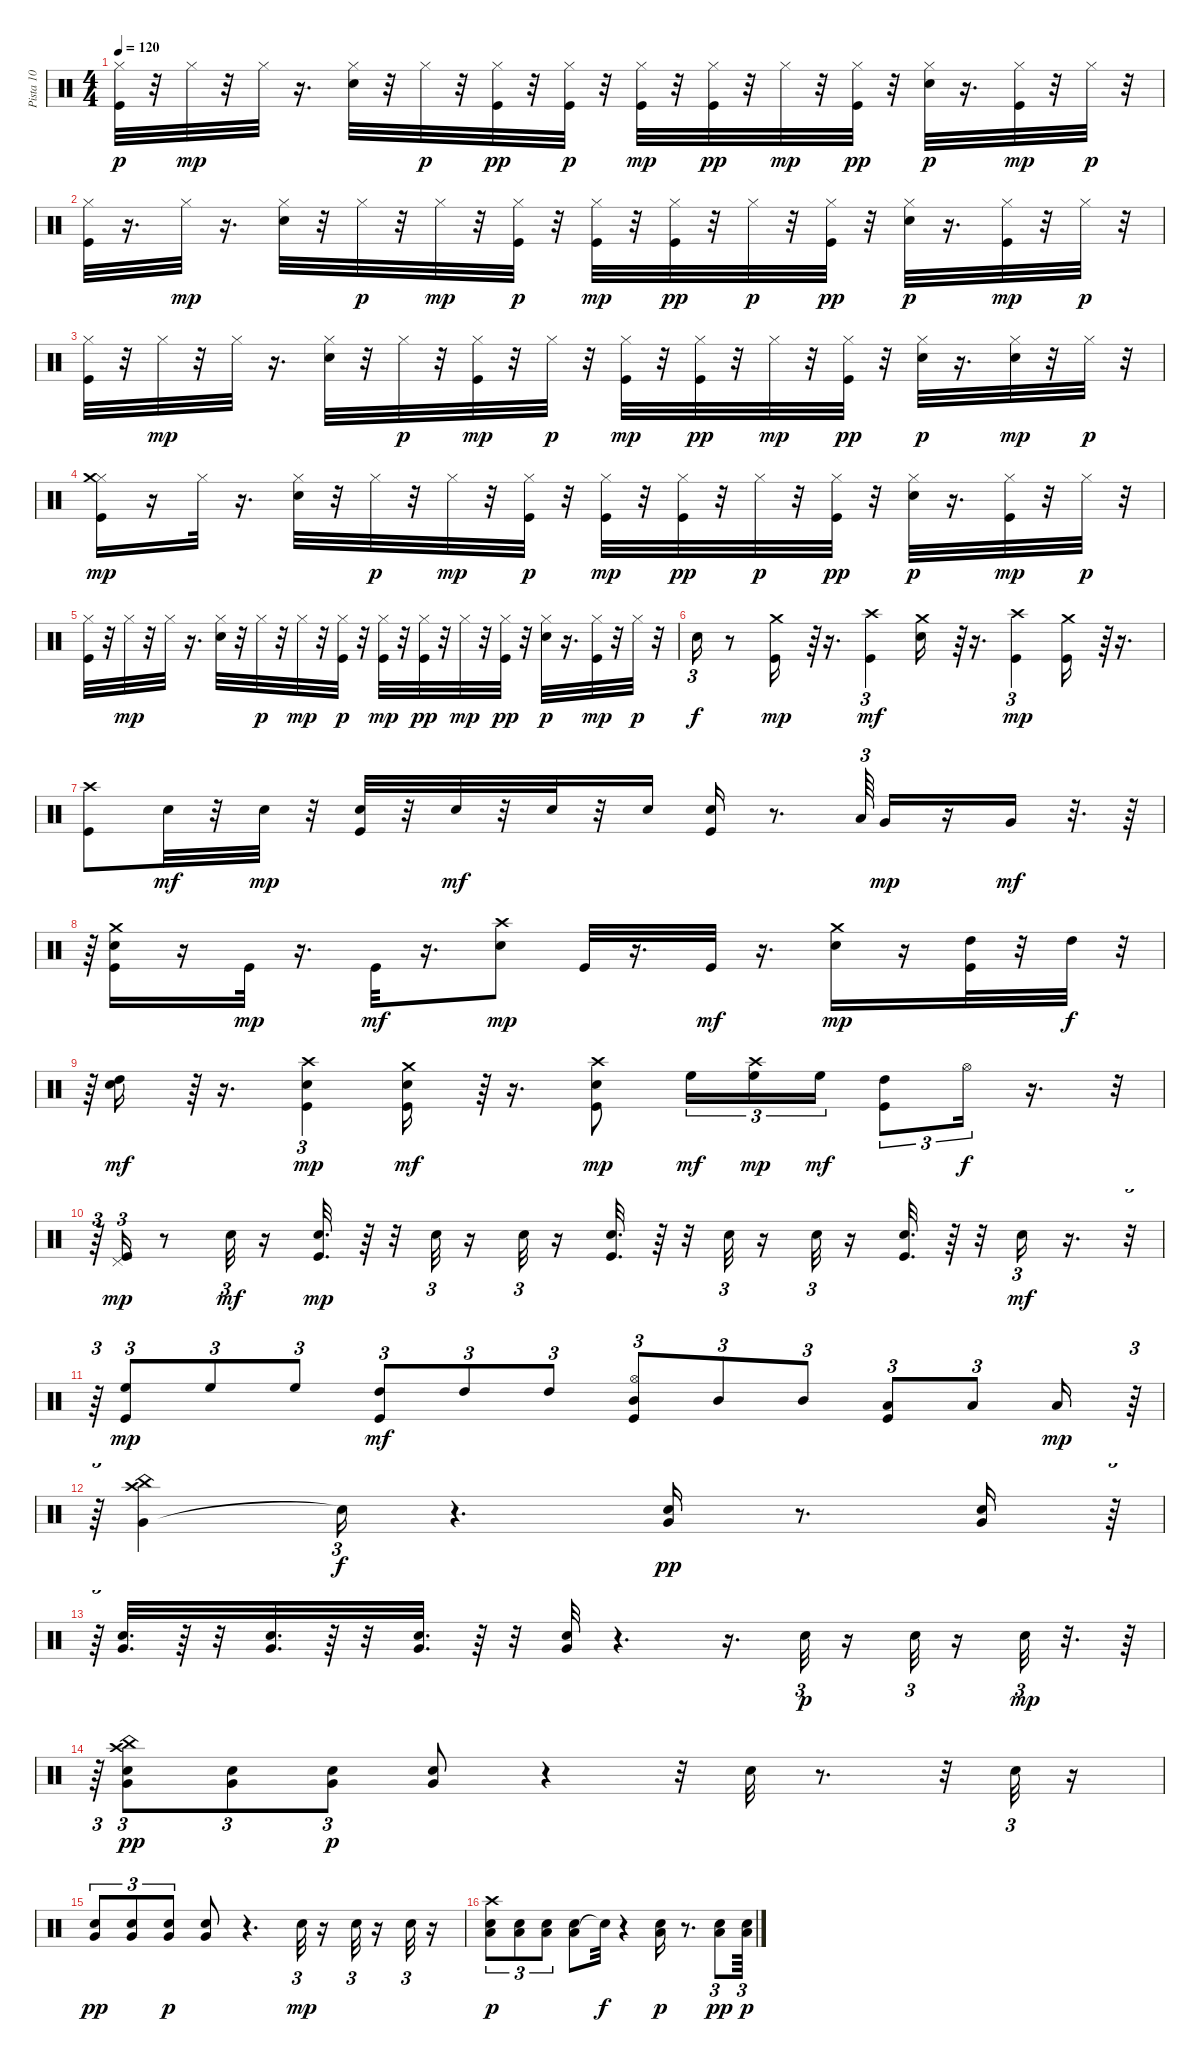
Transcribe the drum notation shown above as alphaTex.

\track ("Pista 10" "Pista 10") {instrument percussion}
\staff {score}
\articulation defaults
\ts (4 4)
\tempo 120
\clef neutral
\ks c
("Kick (hit)" "Hi-Hat (closed)").32{dy p} r.32 "Hi-Hat (closed)".32{dy mp} r.32 "Hi-Hat (closed)".32 r.16{d} ("Hi-Hat (closed)" "Snare (hit) 2").32 r.32 "Hi-Hat (closed)".32{dy p} r.32 ("Hi-Hat (closed)" "Kick (hit)").32{dy pp} r.32 ("Kick (hit)" "Hi-Hat (closed)").32{dy p} r.32 ("Kick (hit)" "Hi-Hat (closed)").32{dy mp} r.32 ("Hi-Hat (closed)" "Kick (hit)").32{dy pp} r.32 "Hi-Hat (closed)".32{dy mp} r.32 ("Hi-Hat (closed)" "Kick (hit)").32{dy pp} r.32 ("Snare (hit) 2" "Hi-Hat (closed)").32{dy p} r.16{d} ("Kick (hit)" "Hi-Hat (closed)").32{dy mp} r.32 "Hi-Hat (closed)".32{dy p} r.32 |
("Kick (hit)" "Hi-Hat (closed)").32 r.16{d} "Hi-Hat (closed)".32{dy mp} r.16{d} ("Hi-Hat (closed)" "Snare (hit) 2").32 r.32 "Hi-Hat (closed)".32{dy p} r.32 "Hi-Hat (closed)".32{dy mp} r.32 ("Kick (hit)" "Hi-Hat (closed)").32{dy p} r.32 ("Kick (hit)" "Hi-Hat (closed)").32{dy mp} r.32 ("Hi-Hat (closed)" "Kick (hit)").32{dy pp} r.32 "Hi-Hat (closed)".32{dy p} r.32 ("Hi-Hat (closed)" "Kick (hit)").32{dy pp} r.32 ("Hi-Hat (closed)" "Snare (hit) 2").32{dy p} r.16{d} ("Hi-Hat (closed)" "Kick (hit)").32{dy mp} r.32 "Hi-Hat (closed)".32{dy p} r.32 |
("Kick (hit)" "Hi-Hat (closed)").32 r.32 "Hi-Hat (closed)".32{dy mp} r.32 "Hi-Hat (closed)".32 r.16{d} ("Hi-Hat (closed)" "Snare (hit) 2").32 r.32 "Hi-Hat (closed)".32{dy p} r.32 ("Kick (hit)" "Hi-Hat (closed)").32{dy mp} r.32 "Hi-Hat (closed)".32{dy p} r.32 ("Kick (hit)" "Hi-Hat (closed)").32{dy mp} r.32 ("Kick (hit)" "Hi-Hat (closed)").32{dy pp} r.32 "Hi-Hat (closed)".32{dy mp} r.32 ("Kick (hit)" "Hi-Hat (closed)").32{dy pp} r.32 ("Hi-Hat (closed)" "Snare (hit) 2").32{dy p} r.16{d} ("Hi-Hat (closed)" "Snare (hit) 2").32{dy mp} r.32 "Hi-Hat (closed)".32{dy p} r.32 |
("Kick (hit)" "Hi-Hat (closed)" "Crash medium (hit)").16{dy mp} r.16 "Hi-Hat (closed)".32 r.16{d} ("Hi-Hat (closed)" "Snare (hit) 2").32 r.32 "Hi-Hat (closed)".32{dy p} r.32 "Hi-Hat (closed)".32{dy mp} r.32 ("Kick (hit)" "Hi-Hat (closed)").32{dy p} r.32 ("Kick (hit)" "Hi-Hat (closed)").32{dy mp} r.32 ("Hi-Hat (closed)" "Kick (hit)").32{dy pp} r.32 "Hi-Hat (closed)".32{dy p} r.32 ("Hi-Hat (closed)" "Kick (hit)").32{dy pp} r.32 ("Hi-Hat (closed)" "Snare (hit) 2").32{dy p} r.16{d} ("Hi-Hat (closed)" "Kick (hit)").32{dy mp} r.32 "Hi-Hat (closed)".32{dy p} r.32 |
("Kick (hit)" "Hi-Hat (closed)").32 r.32 "Hi-Hat (closed)".32{dy mp} r.32 "Hi-Hat (closed)".32 r.16{d} ("Hi-Hat (closed)" "Snare (hit) 2").32 r.32 "Hi-Hat (closed)".32{dy p} r.32 "Hi-Hat (closed)".32{dy mp} r.32 ("Kick (hit)" "Hi-Hat (closed)").32{dy p} r.32 ("Kick (hit)" "Hi-Hat (closed)").32{dy mp} r.32 ("Kick (hit)" "Hi-Hat (closed)").32{dy pp} r.32 "Hi-Hat (closed)".32{dy mp} r.32 ("Kick (hit)" "Hi-Hat (closed)").32{dy pp} r.32 ("Hi-Hat (closed)" "Snare (hit) 2").32{dy p} r.16{d} ("Hi-Hat (closed)" "Kick (hit)").32{dy mp} r.32 "Hi-Hat (closed)".32{dy p} r.32 |
"Snare (hit) 2".16{tu (3 2) dy f} r.8 ("Kick (hit)" "Crash medium (hit)").16{dy mp} r.64{tu (3 2)} r.16{d} ("Kick (hit)" "Crash high (hit)").4{tu (3 2) dy mf} ("Crash medium (hit)" "Snare (hit) 2").16 r.64{tu (3 2)} r.16{d} ("Kick (hit)" "Crash high (hit)").4{tu (3 2) dy mp} ("Kick (hit)" "Crash medium (hit)").16 r.64{tu (3 2)} r.16{d} |
("Kick (hit)" "Crash high (hit)").8 "Snare (hit) 2".32{dy mf} r.32 "Snare (hit) 2".32{dy mp} r.32 ("Kick (hit)" "Snare (hit) 2").32 r.32 "Snare (hit) 2".32{dy mf} r.32 "Snare (hit) 2".32 r.32 "Snare (hit) 2".16 ("Kick (hit)" "Snare (hit) 2").16 r.8{d} "Low Floor Tom (hit)".64{tu (3 2)} "Very Low Tom (hit)".16{dy mp} r.16 "Very Low Tom (hit)".16{dy mf} r.32{d} r.64 |
r.64{tu (3 2)} ("Kick (hit)" "Crash medium (hit)" "Snare (hit) 2").16 r.16 "Kick (hit)".32{dy mp} r.16{d} "Kick (hit)".32{dy mf} r.16{d} ("Crash high (hit)" "Snare (hit) 2").8{dy mp} "Kick (hit)".32 r.16{d} "Kick (hit)".32{dy mf} r.16{d} ("Crash medium (hit)" "Snare (hit) 2").16{dy mp} r.16 ("High Tom (hit)" "Kick (hit)").32 r.32 "High Tom (hit)".32{dy f} r.32{tu (3 2)} |
r.64{tu (3 2)} ("High Tom (hit)" "Snare (hit) 2").16{dy mf} r.64{tu (3 2)} r.16{d} ("Kick (hit)" "Crash high (hit)" "Snare (hit) 2").4{tu (3 2) dy mp} ("Kick (hit)" "Crash medium (hit)" "Snare (hit) 2").16{dy mf} r.64{tu (3 2)} r.16{d} ("Kick (hit)" "Crash high (hit)" "Snare (hit) 2").8{dy mp} "High Floor Tom (hit)".16{tu (3 2) dy mf} ("Crash high (hit)" "High Floor Tom (hit)").16{tu (3 2) dy mp} "High Floor Tom (hit)".16{tu (3 2) dy mf} ("Kick (hit)" "High Tom (hit)").8{tu (3 2)} "Hi-Hat (open)".16{tu (3 2) dy f} r.16{d} r.32{tu (3 2)} |
r.64{tu (3 2)} ("Pedal Hi-Hat (hit)" "Kick (hit)").16{tu (3 2) dy mp} r.8 "Snare (hit) 2".32{tu (3 2) dy mf} r.16 ("Snare (hit) 2" "Kick (hit)").32{d dy mp} r.64 r.32 "Snare (hit) 2".32{tu (3 2)} r.16 "Snare (hit) 2".32{tu (3 2)} r.16 ("Snare (hit) 2" "Kick (hit)").32{d} r.64 r.32 "Snare (hit) 2".32{tu (3 2)} r.16 "Snare (hit) 2".32{tu (3 2)} r.16 ("Snare (hit) 2" "Kick (hit)").32{d} r.64 r.32 "Snare (hit) 2".16{tu (3 2) dy mf} r.16{d} r.32{tu (3 2)} |
r.64{tu (3 2)} ("Kick (hit)" "High Floor Tom (hit)").8{tu (3 2) dy mp} "High Floor Tom (hit)".8{tu (3 2)} "High Floor Tom (hit)".8{tu (3 2)} ("Kick (hit)" "High Tom (hit)").8{tu (3 2) dy mf} "High Tom (hit)".8{tu (3 2)} "High Tom (hit)".8{tu (3 2)} ("Kick (hit)" "Hi-Hat (open)" "Mid Tom (hit)").8{tu (3 2)} "Mid Tom (hit)".8{tu (3 2)} "Mid Tom (hit)".8{tu (3 2)} ("Kick (hit)" "Low Tom (hit)").8{tu (3 2)} "Low Tom (hit)".8{tu (3 2)} "Low Tom (hit)".16{dy mp} r.64{tu (3 2)} |
r.64{tu (3 2)} ("Very Low Tom (hit)" "China (hit)" "Crash high (hit)").4 "Snare (hit)"{t}.16{tu (3 2) dy f} r.4{d} ("Snare (hit) 2" "Very Low Tom (hit)").16{dy pp} r.8{d} ("Snare (hit) 2" "Very Low Tom (hit)").16 r.64{tu (3 2)} |
r.64{tu (3 2)} ("Snare (hit) 2" "Very Low Tom (hit)").32{d} r.64 r.32 ("Snare (hit) 2" "Very Low Tom (hit)").32{d} r.64 r.32 ("Snare (hit) 2" "Very Low Tom (hit)").32{d} r.64 r.32 ("Snare (hit) 2" "Very Low Tom (hit)").32 r.4{d} r.16{d} "Snare (hit) 2".32{tu (3 2) dy p} r.16 "Snare (hit) 2".32{tu (3 2)} r.16 "Snare (hit) 2".32{tu (3 2) dy mp} r.32{d} r.64 |
r.64{tu (3 2)} ("Snare (hit) 2" "China (hit)" "Crash high (hit)" "Very Low Tom (hit)").8{tu (3 2) dy pp} ("Snare (hit) 2" "Very Low Tom (hit)").8{tu (3 2)} ("Snare (hit) 2" "Very Low Tom (hit)").8{tu (3 2) dy p} ("Snare (hit) 2" "Very Low Tom (hit)").8 r.4 r.32 "Snare (hit) 2".32 r.8{d} r.32 "Snare (hit) 2".32{tu (3 2)} r.16 |
("Snare (hit) 2" "Very Low Tom (hit)").8{tu (3 2) dy pp} ("Snare (hit) 2" "Very Low Tom (hit)").8{tu (3 2)} ("Snare (hit) 2" "Very Low Tom (hit)").8{tu (3 2) dy p} ("Snare (hit) 2" "Very Low Tom (hit)").8 r.4{d} "Snare (hit) 2".32{tu (3 2) dy mp} r.16 "Snare (hit) 2".32{tu (3 2)} r.16 "Snare (hit) 2".32{tu (3 2)} r.16 |
("Low Tom (hit)" "Crash high (hit)" "Snare (hit) 2").8{tu (3 2) dy p} ("Low Tom (hit)" "Snare (hit) 2").8{tu (3 2)} ("Low Tom (hit)" "Snare (hit) 2").8{tu (3 2)} ("Low Tom (hit)" "Snare (hit) 2").8 "Snare (hit)"{t}.32{dy f} r.4 ("Low Tom (hit)" "Snare (hit) 2").16{dy p} r.8{d} ("Low Tom (hit)" "Snare (hit) 2").8{tu (3 2) dy pp} ("Low Tom (hit)" "Snare (hit) 2").64{tu (3 2) dy p}
